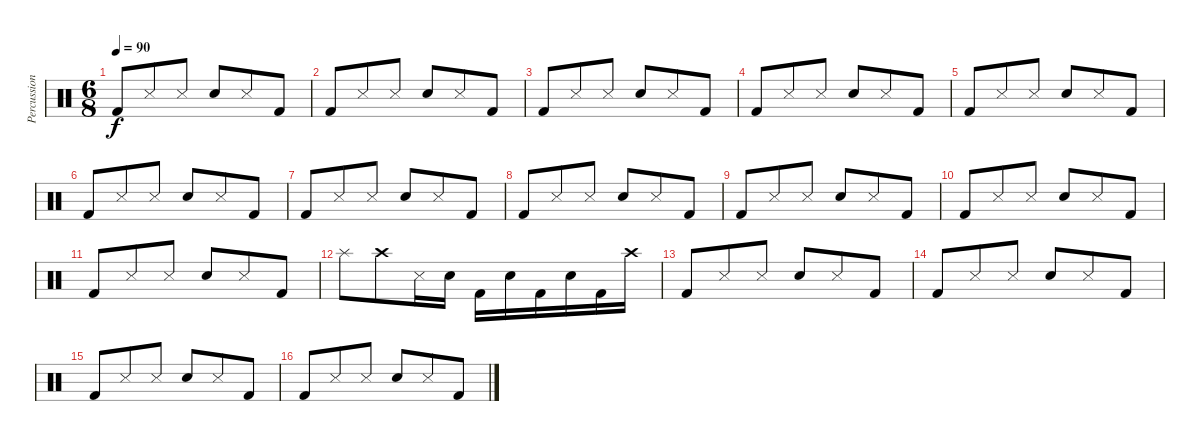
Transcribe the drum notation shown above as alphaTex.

\track ("Percussion" "Percussion") {instrument percussion}
\staff {score}
\articulation defaults
\ts (6 8)
\tempo 90
\clef neutral
\ks c "Kick (hit) 2".8{dy f} "Snare (side stick) 3".8 "Snare (side stick) 3".8 "Electric Snare (hit)".8 "Snare (side stick) 3".8 "Kick (hit) 2".8
|
"Kick (hit) 2".8 "Snare (side stick) 3".8 "Snare (side stick) 3".8 "Electric Snare (hit)".8 "Snare (side stick) 3".8 "Kick (hit) 2".8 |
"Kick (hit) 2".8 "Snare (side stick) 3".8 "Snare (side stick) 3".8 "Electric Snare (hit)".8 "Snare (side stick) 3".8 "Kick (hit) 2".8 |
"Kick (hit) 2".8 "Snare (side stick) 3".8 "Snare (side stick) 3".8 "Electric Snare (hit)".8 "Snare (side stick) 3".8 "Kick (hit) 2".8 |
"Kick (hit) 2".8 "Snare (side stick) 3".8 "Snare (side stick) 3".8 "Electric Snare (hit)".8 "Snare (side stick) 3".8 "Kick (hit) 2".8 |
"Kick (hit) 2".8 "Snare (side stick) 3".8 "Snare (side stick) 3".8 "Electric Snare (hit)".8 "Snare (side stick) 3".8 "Kick (hit) 2".8 |
"Kick (hit) 2".8 "Snare (side stick) 3".8 "Snare (side stick) 3".8 "Electric Snare (hit)".8 "Snare (side stick) 3".8 "Kick (hit) 2".8 |
"Kick (hit) 2".8 "Snare (side stick) 3".8 "Snare (side stick) 3".8 "Electric Snare (hit)".8 "Snare (side stick) 3".8 "Kick (hit) 2".8 |
"Kick (hit) 2".8 "Snare (side stick) 3".8 "Snare (side stick) 3".8 "Electric Snare (hit)".8 "Snare (side stick) 3".8 "Kick (hit) 2".8 |
"Kick (hit) 2".8 "Snare (side stick) 3".8 "Snare (side stick) 3".8 "Electric Snare (hit)".8 "Snare (side stick) 3".8 "Kick (hit) 2".8 |
"Kick (hit) 2".8 "Snare (side stick) 3".8 "Snare (side stick) 3".8 "Electric Snare (hit)".8 "Snare (side stick) 3".8 "Kick (hit) 2".8 |
"Splash (hit)".8 "Crash high (hit)".8 "Snare (side stick) 3".16 "Electric Snare (hit)".16 "Kick (hit) 2".16 "Electric Snare (hit)".16 "Kick (hit) 2".16 "Electric Snare (hit)".16 "Kick (hit) 2".16 "Crash high (hit)".16 |
"Kick (hit) 2".8 "Snare (side stick) 3".8 "Snare (side stick) 3".8 "Electric Snare (hit)".8 "Snare (side stick) 3".8 "Kick (hit) 2".8 |
"Kick (hit) 2".8 "Snare (side stick) 3".8 "Snare (side stick) 3".8 "Electric Snare (hit)".8 "Snare (side stick) 3".8 "Kick (hit) 2".8 |
"Kick (hit) 2".8 "Snare (side stick) 3".8 "Snare (side stick) 3".8 "Electric Snare (hit)".8 "Snare (side stick) 3".8 "Kick (hit) 2".8 |
"Kick (hit) 2".8 "Snare (side stick) 3".8 "Snare (side stick) 3".8 "Electric Snare (hit)".8 "Snare (side stick) 3".8 "Kick (hit) 2".8
